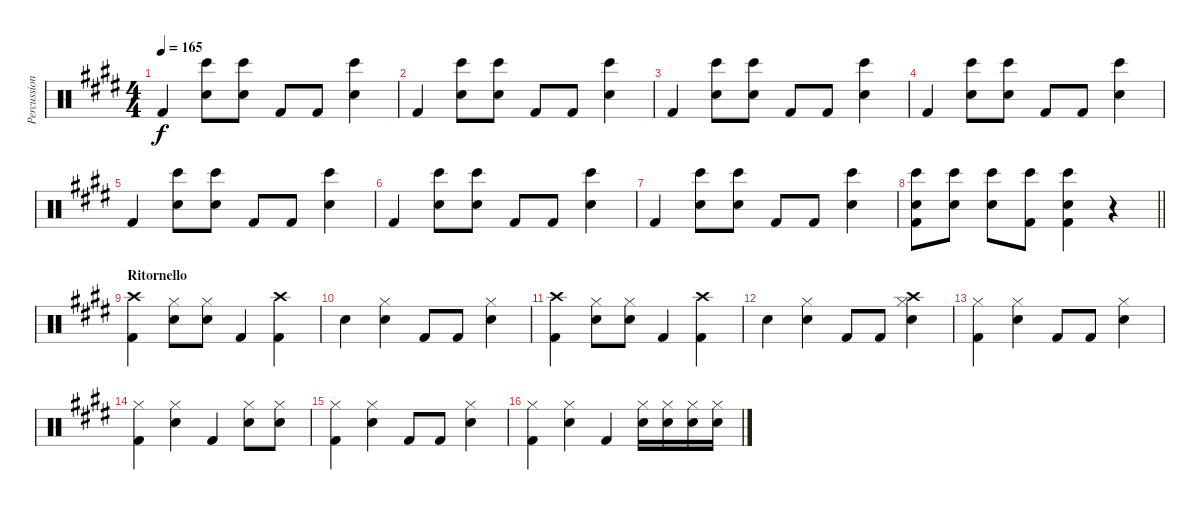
\track ("Percussioni" "Percussion") {instrument percussion}
\staff {score}
\articulation defaults
\ts (4 4)
\tempo 165
\clef neutral
\ks e "Kick (hit) 2".4{dy f}
("Snare (hit) 2" "Bongo High (hit)").8 ("Snare (hit) 2" "Bongo High (hit)").8 "Kick (hit) 2".8 "Kick (hit) 2".8 ("Snare (hit) 2" "Bongo High (hit)").4 |
"Kick (hit) 2".4 ("Snare (hit) 2" "Bongo High (hit)").8 ("Snare (hit) 2" "Bongo High (hit)").8 "Kick (hit) 2".8 "Kick (hit) 2".8 ("Snare (hit) 2" "Bongo High (hit)").4 |
"Kick (hit) 2".4 ("Snare (hit) 2" "Bongo High (hit)").8 ("Snare (hit) 2" "Bongo High (hit)").8 "Kick (hit) 2".8 "Kick (hit) 2".8 ("Snare (hit) 2" "Bongo High (hit)").4 |
"Kick (hit) 2".4 ("Snare (hit) 2" "Bongo High (hit)").8 ("Snare (hit) 2" "Bongo High (hit)").8 "Kick (hit) 2".8 "Kick (hit) 2".8 ("Snare (hit) 2" "Bongo High (hit)").4 |
"Kick (hit) 2".4 ("Snare (hit) 2" "Bongo High (hit)").8 ("Snare (hit) 2" "Bongo High (hit)").8 "Kick (hit) 2".8 "Kick (hit) 2".8 ("Snare (hit) 2" "Bongo High (hit)").4 |
"Kick (hit) 2".4 ("Snare (hit) 2" "Bongo High (hit)").8 ("Snare (hit) 2" "Bongo High (hit)").8 "Kick (hit) 2".8 "Kick (hit) 2".8 ("Snare (hit) 2" "Bongo High (hit)").4 |
"Kick (hit) 2".4 ("Snare (hit) 2" "Bongo High (hit)").8 ("Snare (hit) 2" "Bongo High (hit)").8 "Kick (hit) 2".8 "Kick (hit) 2".8 ("Snare (hit) 2" "Bongo High (hit)").4 |
\barLineRight lightlight
("Kick (hit) 2" "Snare (hit) 2" "Bongo High (hit)").8 ("Snare (hit) 2" "Bongo High (hit)").8 ("Snare (hit) 2" "Bongo High (hit)").8 ("Kick (hit) 2" "Bongo High (hit)").8 ("Kick (hit) 2" "Snare (hit) 2" "Bongo High (hit)").4 r.4 |
\section ("" "Ritornello")
("Crash high (hit)" "Kick (hit) 2").4 ("Snare (hit) 2" "Hi-Hat (closed)").8 ("Snare (hit) 2" "Hi-Hat (closed)").8 "Kick (hit) 2".4 ("Crash high (hit)" "Kick (hit) 2").4 |
"Electric Snare (hit)".4 ("Snare (hit) 2" "Hi-Hat (closed)").4 "Kick (hit) 2".8 "Kick (hit) 2".8 ("Snare (hit) 2" "Hi-Hat (closed)").4 |
("Crash high (hit)" "Kick (hit) 2").4 ("Snare (hit) 2" "Hi-Hat (closed)").8 ("Snare (hit) 2" "Hi-Hat (closed)").8 "Kick (hit) 2".4 ("Crash high (hit)" "Kick (hit) 2").4 |
"Electric Snare (hit)".4 ("Snare (hit) 2" "Hi-Hat (closed)").4 "Kick (hit) 2".8 "Kick (hit) 2".8 ("Snare (hit) 2" "Crash high (hit)" "Hi-Hat (closed)").4 |
("Kick (hit) 2" "Hi-Hat (closed)").4 ("Snare (hit) 2" "Hi-Hat (closed)").4 "Kick (hit) 2".8 "Kick (hit) 2".8 ("Snare (hit) 2" "Hi-Hat (closed)").4 |
("Kick (hit) 2" "Hi-Hat (closed)").4 ("Snare (hit) 2" "Hi-Hat (closed)").4 "Kick (hit) 2".4 ("Snare (hit) 2" "Hi-Hat (closed)").8 ("Snare (hit) 2" "Hi-Hat (closed)").8 |
("Kick (hit) 2" "Hi-Hat (closed)").4 ("Snare (hit) 2" "Hi-Hat (closed)").4 "Kick (hit) 2".8 "Kick (hit) 2".8 ("Snare (hit) 2" "Hi-Hat (closed)").4 |
("Kick (hit) 2" "Hi-Hat (closed)").4 ("Snare (hit) 2" "Hi-Hat (closed)").4 "Kick (hit) 2".4 ("Snare (hit) 2" "Hi-Hat (closed)").16 ("Snare (hit) 2" "Hi-Hat (closed)").16 ("Snare (hit) 2" "Hi-Hat (closed)").16 ("Snare (hit) 2" "Hi-Hat (closed)").16
